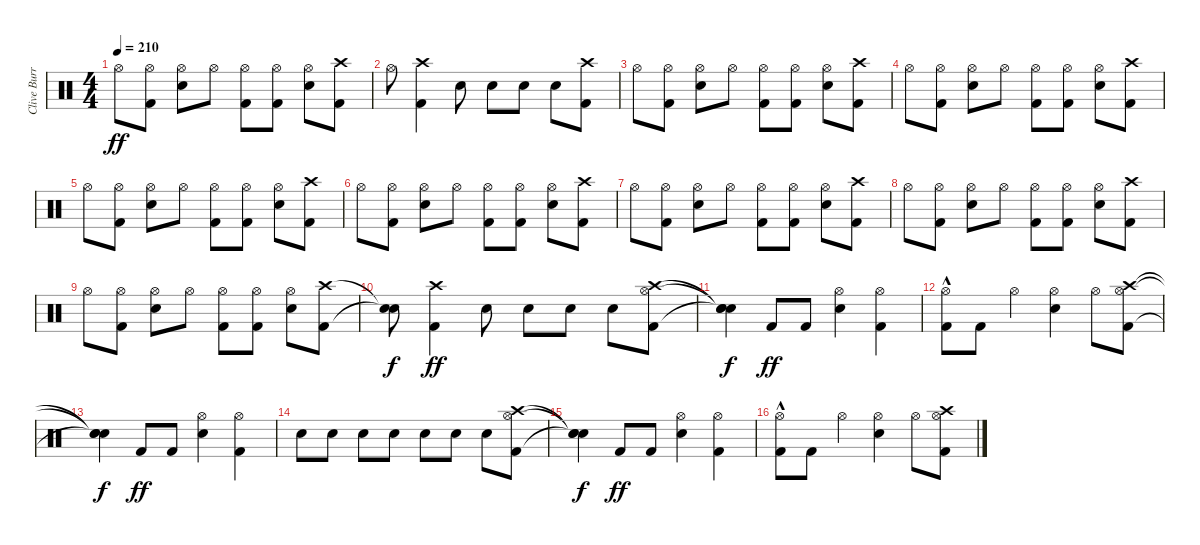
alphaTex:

\track ("Clive Burr" "Clive Burr") {instrument percussion}
\staff {score}
\articulation defaults
\ts (4 4)
\tempo 210
\clef neutral
\ks c "Hi-Hat (open)".8{dy ff}
("Kick (hit) 2" "Hi-Hat (open)").8 ("Snare (hit) 2" "Hi-Hat (open)").8 "Hi-Hat (open)".8 ("Kick (hit) 2" "Hi-Hat (open)").8 ("Kick (hit) 2" "Hi-Hat (open)").8 ("Snare (hit) 2" "Hi-Hat (open)").8 ("Kick (hit) 2" "Crash high (hit)").8 |
"Hi-Hat (open)".8 ("Kick (hit) 2" "Crash high (hit)").4 "Snare (hit) 2".8 "Snare (hit) 2".8 "Snare (hit) 2".8 "Snare (hit) 2".8 ("Kick (hit) 2" "Crash high (hit)").8 |
"Hi-Hat (open)".8 ("Kick (hit) 2" "Hi-Hat (open)").8 ("Snare (hit) 2" "Hi-Hat (open)").8 "Hi-Hat (open)".8 ("Kick (hit) 2" "Hi-Hat (open)").8 ("Kick (hit) 2" "Hi-Hat (open)").8 ("Snare (hit) 2" "Hi-Hat (open)").8 ("Kick (hit) 2" "Crash high (hit)").8 |
"Hi-Hat (open)".8 ("Kick (hit) 2" "Hi-Hat (open)").8 ("Snare (hit) 2" "Hi-Hat (open)").8 "Hi-Hat (open)".8 ("Kick (hit) 2" "Hi-Hat (open)").8 ("Kick (hit) 2" "Hi-Hat (open)").8 ("Snare (hit) 2" "Hi-Hat (open)").8 ("Kick (hit) 2" "Crash high (hit)").8 |
"Hi-Hat (open)".8 ("Kick (hit) 2" "Hi-Hat (open)").8 ("Snare (hit) 2" "Hi-Hat (open)").8 "Hi-Hat (open)".8 ("Kick (hit) 2" "Hi-Hat (open)").8 ("Kick (hit) 2" "Hi-Hat (open)").8 ("Snare (hit) 2" "Hi-Hat (open)").8 ("Kick (hit) 2" "Crash high (hit)").8 |
"Hi-Hat (open)".8 ("Kick (hit) 2" "Hi-Hat (open)").8 ("Snare (hit) 2" "Hi-Hat (open)").8 "Hi-Hat (open)".8 ("Kick (hit) 2" "Hi-Hat (open)").8 ("Kick (hit) 2" "Hi-Hat (open)").8 ("Snare (hit) 2" "Hi-Hat (open)").8 ("Kick (hit) 2" "Crash high (hit)").8 |
"Hi-Hat (open)".8 ("Kick (hit) 2" "Hi-Hat (open)").8 ("Snare (hit) 2" "Hi-Hat (open)").8 "Hi-Hat (open)".8 ("Kick (hit) 2" "Hi-Hat (open)").8 ("Kick (hit) 2" "Hi-Hat (open)").8 ("Snare (hit) 2" "Hi-Hat (open)").8 ("Kick (hit) 2" "Crash high (hit)").8 |
"Hi-Hat (open)".8 ("Kick (hit) 2" "Hi-Hat (open)").8 ("Snare (hit) 2" "Hi-Hat (open)").8 "Hi-Hat (open)".8 ("Kick (hit) 2" "Hi-Hat (open)").8 ("Kick (hit) 2" "Hi-Hat (open)").8 ("Snare (hit) 2" "Hi-Hat (open)").8 ("Kick (hit) 2" "Crash high (hit)").8 |
"Hi-Hat (open)".8 ("Kick (hit) 2" "Hi-Hat (open)").8 ("Snare (hit) 2" "Hi-Hat (open)").8 "Hi-Hat (open)".8 ("Kick (hit) 2" "Hi-Hat (open)").8 ("Kick (hit) 2" "Hi-Hat (open)").8 ("Snare (hit) 2" "Hi-Hat (open)").8 ("Kick (hit) 2" "Crash high (hit)").8 |
("Snare (hit)"{t} "Snare (hit)"{t}).8{dy f} ("Kick (hit) 2" "Crash high (hit)").4{dy ff} "Snare (hit) 2".8 "Snare (hit) 2".8 "Snare (hit) 2".8 "Snare (hit) 2".8 ("Kick (hit) 2" "Hi-Hat (open)" "Crash high (hit)").8 |
("Snare (hit)"{t} "Snare (hit)"{t} "Snare (hit)"{t}).4{dy f} "Kick (hit) 2".8{dy ff} "Kick (hit) 2".8 ("Snare (hit) 2" "Hi-Hat (open)").4 ("Kick (hit) 2" "Hi-Hat (open)").4 |
("Kick (hit) 2" "Hi-Hat (open)"{hac}).8 "Kick (hit) 2".8 "Hi-Hat (open)".4 ("Snare (hit) 2" "Hi-Hat (open)").4 "Hi-Hat (open)".8 ("Kick (hit) 2" "Hi-Hat (open)" "Crash high (hit)").8 |
("Snare (hit)"{t} "Snare (hit)"{t} "Snare (hit)"{t}).4{dy f} "Kick (hit) 2".8{dy ff} "Kick (hit) 2".8 ("Snare (hit) 2" "Hi-Hat (open)").4 ("Kick (hit) 2" "Hi-Hat (open)").4 |
"Snare (hit) 2".8 "Snare (hit) 2".8 "Snare (hit) 2".8 "Snare (hit) 2".8 "Snare (hit) 2".8 "Snare (hit) 2".8 "Snare (hit) 2".8 ("Kick (hit) 2" "Hi-Hat (open)" "Crash high (hit)").8 |
("Snare (hit)"{t} "Snare (hit)"{t} "Snare (hit)"{t}).4{dy f} "Kick (hit) 2".8{dy ff} "Kick (hit) 2".8 ("Snare (hit) 2" "Hi-Hat (open)").4 ("Kick (hit) 2" "Hi-Hat (open)").4 |
("Kick (hit) 2" "Hi-Hat (open)"{hac}).8 "Kick (hit) 2".8 "Hi-Hat (open)".4 ("Snare (hit) 2" "Hi-Hat (open)").4 "Hi-Hat (open)".8 ("Kick (hit) 2" "Hi-Hat (open)" "Crash high (hit)").8
